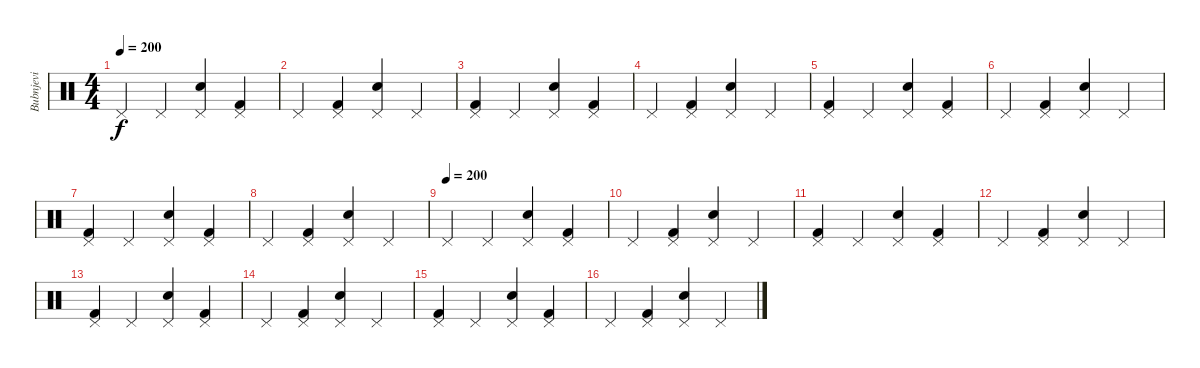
\track ("Bubnjevi" "Bubnjevi") {instrument percussion}
\staff {score}
\articulation defaults
\ts (4 4)
\tempo 200
\clef neutral
\ks c "Pedal Hi-Hat (hit)".4{dy f} "Pedal Hi-Hat (hit)".4
("Pedal Hi-Hat (hit)" "Electric Snare (hit)").4 ("Pedal Hi-Hat (hit)" "Kick (hit) 2").4 |
"Pedal Hi-Hat (hit)".4 ("Pedal Hi-Hat (hit)" "Kick (hit) 2").4 ("Pedal Hi-Hat (hit)" "Electric Snare (hit)").4 "Pedal Hi-Hat (hit)".4 |
("Pedal Hi-Hat (hit)" "Kick (hit) 2").4 "Pedal Hi-Hat (hit)".4 ("Pedal Hi-Hat (hit)" "Electric Snare (hit)").4 ("Pedal Hi-Hat (hit)" "Kick (hit) 2").4 |
"Pedal Hi-Hat (hit)".4 ("Pedal Hi-Hat (hit)" "Kick (hit) 2").4 ("Pedal Hi-Hat (hit)" "Electric Snare (hit)").4 "Pedal Hi-Hat (hit)".4 |
("Pedal Hi-Hat (hit)" "Kick (hit) 2").4 "Pedal Hi-Hat (hit)".4 ("Pedal Hi-Hat (hit)" "Electric Snare (hit)").4 ("Pedal Hi-Hat (hit)" "Kick (hit) 2").4 |
"Pedal Hi-Hat (hit)".4 ("Pedal Hi-Hat (hit)" "Kick (hit) 2").4 ("Pedal Hi-Hat (hit)" "Electric Snare (hit)").4 "Pedal Hi-Hat (hit)".4 |
("Pedal Hi-Hat (hit)" "Kick (hit) 2").4 "Pedal Hi-Hat (hit)".4 ("Pedal Hi-Hat (hit)" "Electric Snare (hit)").4 ("Pedal Hi-Hat (hit)" "Kick (hit) 2").4 |
"Pedal Hi-Hat (hit)".4 ("Pedal Hi-Hat (hit)" "Kick (hit) 2").4 ("Pedal Hi-Hat (hit)" "Electric Snare (hit)").4 "Pedal Hi-Hat (hit)".4 |
\tempo (200)
"Pedal Hi-Hat (hit)".4 "Pedal Hi-Hat (hit)".4 ("Pedal Hi-Hat (hit)" "Electric Snare (hit)").4 ("Pedal Hi-Hat (hit)" "Kick (hit) 2").4 |
"Pedal Hi-Hat (hit)".4 ("Pedal Hi-Hat (hit)" "Kick (hit) 2").4 ("Pedal Hi-Hat (hit)" "Electric Snare (hit)").4 "Pedal Hi-Hat (hit)".4 |
("Pedal Hi-Hat (hit)" "Kick (hit) 2").4 "Pedal Hi-Hat (hit)".4 ("Pedal Hi-Hat (hit)" "Electric Snare (hit)").4 ("Pedal Hi-Hat (hit)" "Kick (hit) 2").4 |
"Pedal Hi-Hat (hit)".4 ("Pedal Hi-Hat (hit)" "Kick (hit) 2").4 ("Pedal Hi-Hat (hit)" "Electric Snare (hit)").4 "Pedal Hi-Hat (hit)".4 |
("Pedal Hi-Hat (hit)" "Kick (hit) 2").4 "Pedal Hi-Hat (hit)".4 ("Pedal Hi-Hat (hit)" "Electric Snare (hit)").4 ("Pedal Hi-Hat (hit)" "Kick (hit) 2").4 |
"Pedal Hi-Hat (hit)".4 ("Pedal Hi-Hat (hit)" "Kick (hit) 2").4 ("Pedal Hi-Hat (hit)" "Electric Snare (hit)").4 "Pedal Hi-Hat (hit)".4 |
("Pedal Hi-Hat (hit)" "Kick (hit) 2").4 "Pedal Hi-Hat (hit)".4 ("Pedal Hi-Hat (hit)" "Electric Snare (hit)").4 ("Pedal Hi-Hat (hit)" "Kick (hit) 2").4 |
"Pedal Hi-Hat (hit)".4 ("Pedal Hi-Hat (hit)" "Kick (hit) 2").4 ("Pedal Hi-Hat (hit)" "Electric Snare (hit)").4 "Pedal Hi-Hat (hit)".4
